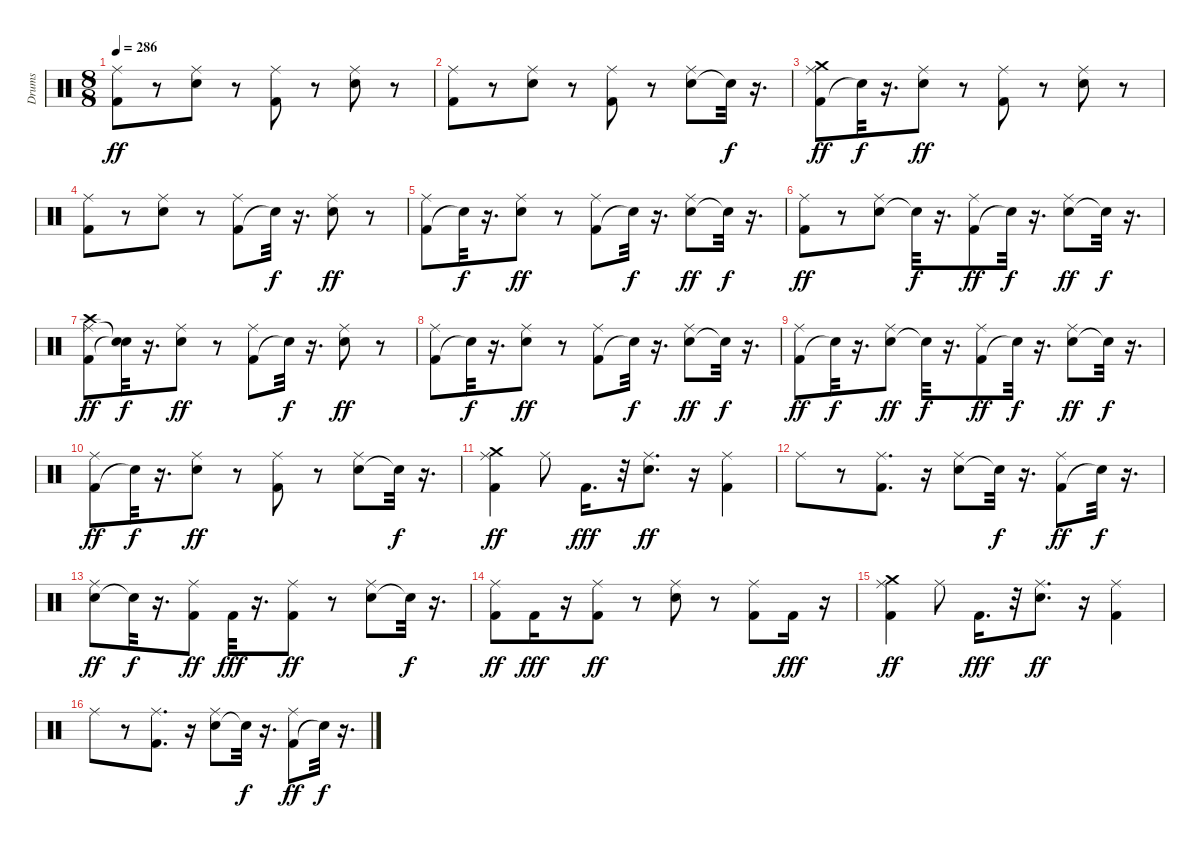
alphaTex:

\track ("Drums" "Drums") {instrument percussion}
\staff {score}
\articulation defaults
\ts (8 8)
\tempo 286
\clef neutral
\ks c
("Kick (hit) 2" "Ride (middle)").8{dy ff} r.8 ("Snare (hit) 2" "Ride (middle)").8 r.8 ("Kick (hit) 2" "Ride (middle)").8 r.8 ("Snare (hit) 2" "Ride (middle)").8 r.8 |
("Kick (hit) 2" "Ride (middle)").8 r.8 ("Snare (hit) 2" "Ride (middle)").8 r.8 ("Kick (hit) 2" "Ride (middle)").8 r.8 ("Snare (hit) 2" "Ride (middle)").8 "Snare (hit)"{t}.32{dy f} r.16{d} |
("Kick (hit) 2" "Ride (middle)" "Crash medium (hit)").8{dy ff} "Snare (hit)"{t}.32{dy f} r.16{d} ("Snare (hit) 2" "Ride (middle)").8{dy ff} r.8 ("Kick (hit) 2" "Ride (middle)").8 r.8 ("Snare (hit) 2" "Ride (middle)").8 r.8 |
("Kick (hit) 2" "Ride (middle)").8 r.8 ("Snare (hit) 2" "Ride (middle)").8 r.8 ("Kick (hit) 2" "Ride (middle)").8 "Snare (hit)"{t}.32{dy f} r.16{d} ("Snare (hit) 2" "Ride (middle)").8{dy ff} r.8 |
("Kick (hit) 2" "Ride (middle)").8 "Snare (hit)"{t}.32{dy f} r.16{d} ("Snare (hit) 2" "Ride (middle)").8{dy ff} r.8 ("Kick (hit) 2" "Ride (middle)").8 "Snare (hit)"{t}.32{dy f} r.16{d} ("Snare (hit) 2" "Ride (middle)").8{dy ff} "Snare (hit)"{t}.32{dy f} r.16{d} |
("Kick (hit) 2" "Ride (middle)").8{dy ff} r.8 ("Snare (hit) 2" "Ride (middle)").8 "Snare (hit)"{t}.32{dy f} r.16{d} ("Kick (hit) 2" "Ride (middle)").8{dy ff} "Snare (hit)"{t}.32{dy f} r.16{d} ("Snare (hit) 2" "Ride (middle)").8{dy ff} "Snare (hit)"{t}.32{dy f} r.16{d} |
("Kick (hit) 2" "Ride (middle)" "Crash high (hit)").8{dy ff} ("Snare (hit)"{t} "Snare (hit)"{t}).32{dy f} r.16{d} ("Snare (hit) 2" "Ride (middle)").8{dy ff} r.8 ("Kick (hit) 2" "Ride (middle)").8 "Snare (hit)"{t}.32{dy f} r.16{d} ("Snare (hit) 2" "Ride (middle)").8{dy ff} r.8 |
("Kick (hit) 2" "Ride (middle)").8 "Snare (hit)"{t}.32{dy f} r.16{d} ("Snare (hit) 2" "Ride (middle)").8{dy ff} r.8 ("Kick (hit) 2" "Ride (middle)").8 "Snare (hit)"{t}.32{dy f} r.16{d} ("Snare (hit) 2" "Ride (middle)").8{dy ff} "Snare (hit)"{t}.32{dy f} r.16{d} |
("Kick (hit) 2" "Ride (middle)").8{dy ff} "Snare (hit)"{t}.32{dy f} r.16{d} ("Snare (hit) 2" "Ride (middle)").8{dy ff} "Snare (hit)"{t}.32{dy f} r.16{d} ("Kick (hit) 2" "Ride (middle)").8{dy ff} "Snare (hit)"{t}.32{dy f} r.16{d} ("Snare (hit) 2" "Ride (middle)").8{dy ff} "Snare (hit)"{t}.32{dy f} r.16{d} |
("Kick (hit) 2" "Ride (middle)").8{dy ff} "Snare (hit)"{t}.32{dy f} r.16{d} ("Snare (hit) 2" "Ride (middle)").8{dy ff} r.8 ("Kick (hit) 2" "Ride (middle)").8 r.8 ("Snare (hit) 2" "Ride (middle)").8 "Snare (hit)"{t}.32{dy f} r.16{d} |
("Kick (hit) 2" "Ride (middle)" "Crash medium (hit)").4{dy ff} "Ride (middle)".8 "Kick (hit) 2".16{d dy fff} r.32 ("Snare (hit) 2" "Ride (middle)").8{d dy ff} r.16 ("Kick (hit) 2" "Ride (middle)").4 |
"Ride (middle)".8 r.8 ("Kick (hit) 2" "Ride (middle)").8{d} r.16 ("Snare (hit) 2" "Ride (middle)").8 "Snare (hit)"{t}.32{dy f} r.16{d} ("Kick (hit) 2" "Ride (middle)").8{dy ff} "Snare (hit)"{t}.32{dy f} r.16{d} |
("Snare (hit) 2" "Ride (middle)").8{dy ff} "Snare (hit)"{t}.32{dy f} r.16{d} ("Kick (hit) 2" "Ride (middle)").8{dy ff} "Kick (hit) 2".32{dy fff} r.16{d} ("Kick (hit) 2" "Ride (middle)").8{dy ff} r.8 ("Snare (hit) 2" "Ride (middle)").8 "Snare (hit)"{t}.32{dy f} r.16{d} |
("Kick (hit) 2" "Ride (middle)").8{dy ff} "Kick (hit) 2".16{dy fff} r.16 ("Kick (hit) 2" "Ride (middle)").8{dy ff} r.8 ("Snare (hit) 2" "Ride (middle)").8 r.8 ("Kick (hit) 2" "Ride (middle)").8 "Kick (hit) 2".16{dy fff} r.16 |
("Kick (hit) 2" "Ride (middle)" "Crash medium (hit)").4{dy ff} "Ride (middle)".8 "Kick (hit) 2".16{d dy fff} r.32 ("Snare (hit) 2" "Ride (middle)").8{d dy ff} r.16 ("Kick (hit) 2" "Ride (middle)").4 |
"Ride (middle)".8 r.8 ("Kick (hit) 2" "Ride (middle)").8{d} r.16 ("Snare (hit) 2" "Ride (middle)").8 "Snare (hit)"{t}.32{dy f} r.16{d} ("Kick (hit) 2" "Ride (middle)").8{dy ff} "Snare (hit)"{t}.32{dy f} r.16{d}
